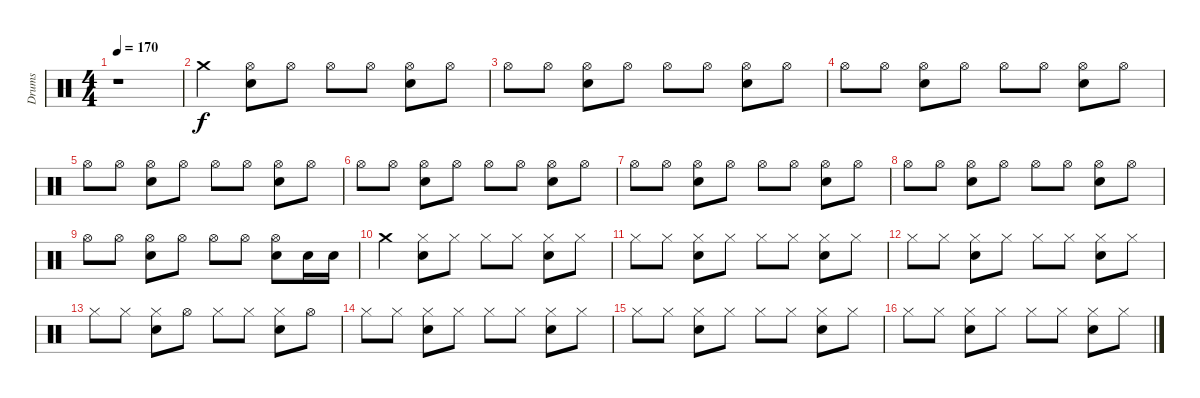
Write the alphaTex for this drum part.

\track ("Drums" "Drums") {instrument percussion}
\staff {score}
\articulation defaults
\ts (4 4)
\tempo 170
\clef neutral
\ks c
r.1{dy f} |
"Crash medium (hit)".4 ("Electric Snare (hit)" "Hi-Hat (open)").8 "Hi-Hat (open)".8 "Hi-Hat (open)".8 "Hi-Hat (open)".8 ("Electric Snare (hit)" "Hi-Hat (open)").8 "Hi-Hat (open)".8 |
"Hi-Hat (open)".8 "Hi-Hat (open)".8 ("Electric Snare (hit)" "Hi-Hat (open)").8 "Hi-Hat (open)".8 "Hi-Hat (open)".8 "Hi-Hat (open)".8 ("Electric Snare (hit)" "Hi-Hat (open)").8 "Hi-Hat (open)".8 |
"Hi-Hat (open)".8 "Hi-Hat (open)".8 ("Electric Snare (hit)" "Hi-Hat (open)").8 "Hi-Hat (open)".8 "Hi-Hat (open)".8 "Hi-Hat (open)".8 ("Electric Snare (hit)" "Hi-Hat (open)").8 "Hi-Hat (open)".8 |
"Hi-Hat (open)".8 "Hi-Hat (open)".8 ("Electric Snare (hit)" "Hi-Hat (open)").8 "Hi-Hat (open)".8 "Hi-Hat (open)".8 "Hi-Hat (open)".8 ("Electric Snare (hit)" "Hi-Hat (open)").8 "Hi-Hat (open)".8 |
"Hi-Hat (open)".8 "Hi-Hat (open)".8 ("Electric Snare (hit)" "Hi-Hat (open)").8 "Hi-Hat (open)".8 "Hi-Hat (open)".8 "Hi-Hat (open)".8 ("Electric Snare (hit)" "Hi-Hat (open)").8 "Hi-Hat (open)".8 |
"Hi-Hat (open)".8 "Hi-Hat (open)".8 ("Electric Snare (hit)" "Hi-Hat (open)").8 "Hi-Hat (open)".8 "Hi-Hat (open)".8 "Hi-Hat (open)".8 ("Electric Snare (hit)" "Hi-Hat (open)").8 "Hi-Hat (open)".8 |
"Hi-Hat (open)".8 "Hi-Hat (open)".8 ("Electric Snare (hit)" "Hi-Hat (open)").8 "Hi-Hat (open)".8 "Hi-Hat (open)".8 "Hi-Hat (open)".8 ("Electric Snare (hit)" "Hi-Hat (open)").8 "Hi-Hat (open)".8 |
"Hi-Hat (open)".8 "Hi-Hat (open)".8 ("Electric Snare (hit)" "Hi-Hat (open)").8 "Hi-Hat (open)".8 "Hi-Hat (open)".8 "Hi-Hat (open)".8 ("Electric Snare (hit)" "Hi-Hat (open)").8 "Electric Snare (hit)".16 "Electric Snare (hit)".16 |
"Crash medium (hit)".4 ("Electric Snare (hit)" "Hi-Hat (closed)").8 "Hi-Hat (closed)".8 "Hi-Hat (closed)".8 "Hi-Hat (closed)".8 ("Electric Snare (hit)" "Hi-Hat (closed)").8 "Hi-Hat (closed)".8 |
"Hi-Hat (closed)".8 "Hi-Hat (closed)".8 ("Electric Snare (hit)" "Hi-Hat (closed)").8 "Hi-Hat (closed)".8 "Hi-Hat (closed)".8 "Hi-Hat (closed)".8 ("Electric Snare (hit)" "Hi-Hat (closed)").8 "Hi-Hat (closed)".8 |
"Hi-Hat (closed)".8 "Hi-Hat (closed)".8 ("Electric Snare (hit)" "Hi-Hat (closed)").8 "Hi-Hat (closed)".8 "Hi-Hat (closed)".8 "Hi-Hat (closed)".8 ("Electric Snare (hit)" "Hi-Hat (closed)").8 "Hi-Hat (closed)".8 |
"Hi-Hat (closed)".8 "Hi-Hat (closed)".8 ("Electric Snare (hit)" "Hi-Hat (closed)").8 "Hi-Hat (open)".8 "Hi-Hat (closed)".8 "Hi-Hat (closed)".8 ("Electric Snare (hit)" "Hi-Hat (closed)").8 "Hi-Hat (open)".8 |
"Hi-Hat (closed)".8 "Hi-Hat (closed)".8 ("Electric Snare (hit)" "Hi-Hat (closed)").8 "Hi-Hat (closed)".8 "Hi-Hat (closed)".8 "Hi-Hat (closed)".8 ("Electric Snare (hit)" "Hi-Hat (closed)").8 "Hi-Hat (closed)".8 |
"Hi-Hat (closed)".8 "Hi-Hat (closed)".8 ("Electric Snare (hit)" "Hi-Hat (closed)").8 "Hi-Hat (closed)".8 "Hi-Hat (closed)".8 "Hi-Hat (closed)".8 ("Electric Snare (hit)" "Hi-Hat (closed)").8 "Hi-Hat (closed)".8 |
"Hi-Hat (closed)".8 "Hi-Hat (closed)".8 ("Electric Snare (hit)" "Hi-Hat (closed)").8 "Hi-Hat (closed)".8 "Hi-Hat (closed)".8 "Hi-Hat (closed)".8 ("Electric Snare (hit)" "Hi-Hat (closed)").8 "Hi-Hat (closed)".8
